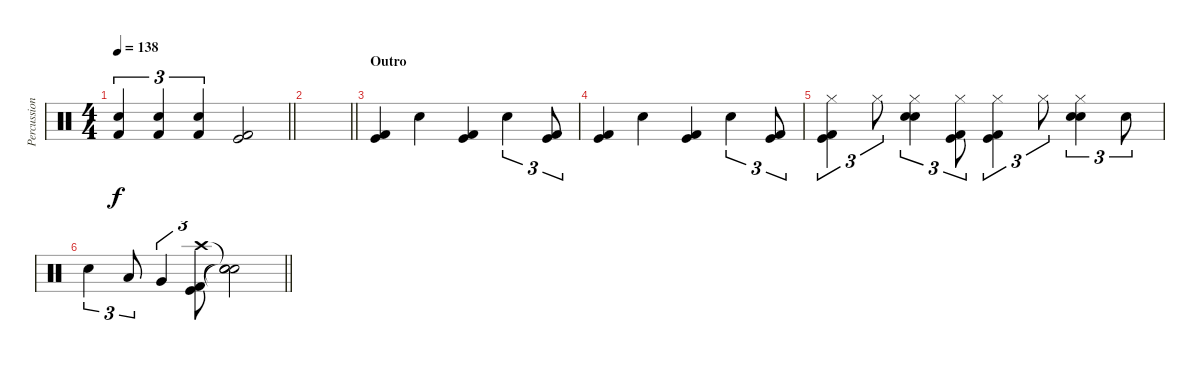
\track ("Percussion" "Percussion") {instrument percussion}
\staff {score}
\articulation defaults
\ts (4 4)
\tempo 138
\clef neutral
\barLineRight lightlight
\ks c
("Electric Snare (hit)" "Kick (hit) 2").4{tu (3 2) dy f} ("Electric Snare (hit)" "Kick (hit) 2").4{tu (3 2)} ("Electric Snare (hit)" "Kick (hit) 2").4{tu (3 2)} ("Kick (hit)" "Kick (hit) 2").2 |
\barLineRight lightlight
|
\section ("" "Outro")
("Kick (hit)" "Kick (hit) 2").4 "Hand Clap (hit)".4 ("Kick (hit)" "Kick (hit) 2").4 "Hand Clap (hit)".4{tu (3 2)} ("Kick (hit)" "Kick (hit) 2").8{tu (3 2)} |
("Kick (hit)" "Kick (hit) 2").4 "Hand Clap (hit)".4 ("Kick (hit)" "Kick (hit) 2").4 "Hand Clap (hit)".4{tu (3 2)} ("Kick (hit)" "Kick (hit) 2").8{tu (3 2)} |
("Hi-Hat (closed)" "Kick (hit)" "Kick (hit) 2").4{tu (3 2)} "Hi-Hat (closed)".8{tu (3 2)} ("Hi-Hat (closed)" "Hand Clap (hit)" "Electric Snare (hit)").4{tu (3 2)} ("Hi-Hat (closed)" "Kick (hit)" "Kick (hit) 2").8{tu (3 2)} ("Hi-Hat (closed)" "Kick (hit)" "Kick (hit) 2").4{tu (3 2)} "Hi-Hat (closed)".8{tu (3 2)} ("Hi-Hat (closed)" "Hand Clap (hit)" "Electric Snare (hit)").4{tu (3 2)} "Electric Snare (hit)".8{tu (3 2)} |
\barLineRight lightlight "Electric Snare (hit)".4{tu (3 2)} "Low Tom (hit)".8{tu (3 2)} "Very Low Tom (hit)".4{tu (3 2)}
("Crash high (hit)" "Kick (hit)" "Kick (hit) 2").8{tu (3 2)} ("Snare (hit)"{t} "Snare (hit)"{t} "Snare (hit)"{t}).2
